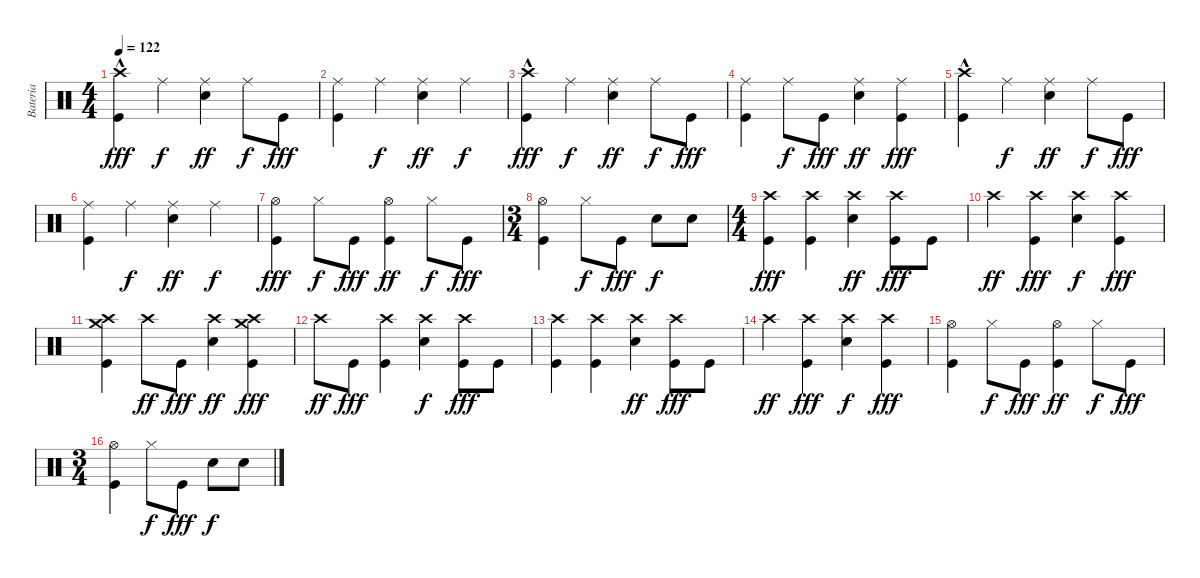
\track ("Bateria" "Bateria") {instrument percussion}
\staff {score}
\articulation defaults
\ts (4 4)
\tempo 122
\clef neutral
\ks c
("Crash high (hit)"{hac} "Kick (hit)").4{dy fff} "Ride (middle)".4{dy f} ("Ride (middle)" "Snare (hit) 2").4{dy ff} "Ride (middle)".8{dy f} "Kick (hit)".8{dy fff} |
("Ride (middle)" "Kick (hit)").4 "Ride (middle)".4{dy f} ("Ride (middle)" "Snare (hit) 2").4{dy ff} "Ride (middle)".4{dy f} |
("Crash high (hit)"{hac} "Kick (hit)").4{dy fff} "Ride (middle)".4{dy f} ("Ride (middle)" "Snare (hit) 2").4{dy ff} "Ride (middle)".8{dy f} "Kick (hit)".8{dy fff} |
("Ride (middle)" "Kick (hit)").4 "Ride (middle)".8{dy f} "Kick (hit)".8{dy fff} ("Ride (middle)" "Snare (hit) 2").4{dy ff} ("Ride (middle)" "Kick (hit)").4{dy fff} |
("Crash high (hit)"{hac} "Kick (hit)").4 "Ride (middle)".4{dy f} ("Ride (middle)" "Snare (hit) 2").4{dy ff} "Ride (middle)".8{dy f} "Kick (hit)".8{dy fff} |
("Ride (middle)" "Kick (hit)").4 "Ride (middle)".4{dy f} ("Ride (middle)" "Snare (hit) 2").4{dy ff} "Ride (middle)".4{dy f} |
("Hi-Hat (open)" "Kick (hit)").4{dy fff} "Hi-Hat (closed)".8{dy f} "Kick (hit)".8{dy fff} ("Hi-Hat (open)" "Kick (hit)").4{dy ff} "Hi-Hat (closed)".8{dy f} "Kick (hit)".8{dy fff} |
\ts (3 4)
("Hi-Hat (open)" "Kick (hit)").4 "Hi-Hat (closed)".8{dy f} "Kick (hit)".8{dy fff} "Snare (hit) 2".8{dy f} "Snare (hit) 2".8 |
\ts (4 4)
("Crash high (hit)" "Kick (hit)").4{dy fff} ("Crash high (hit)" "Kick (hit)").4 ("Crash high (hit)" "Snare (hit) 2").4{dy ff} ("Crash high (hit)" "Kick (hit)").8{dy fff} "Kick (hit)".8 |
"Crash high (hit)".4{dy ff} ("Crash high (hit)" "Kick (hit)").4{dy fff} ("Crash high (hit)" "Snare (hit) 2").4{dy f} ("Crash high (hit)" "Kick (hit)").4{dy fff} |
("Crash high (hit)" "Crash medium (hit)" "Kick (hit)").4 "Crash high (hit)".8{dy ff} "Kick (hit)".8{dy fff} ("Crash high (hit)" "Snare (hit) 2").4{dy ff} ("Crash high (hit)" "Crash medium (hit)" "Kick (hit)").4{dy fff} |
"Crash high (hit)".8{dy ff} "Kick (hit)".8{dy fff} ("Crash high (hit)" "Kick (hit)").4 ("Crash high (hit)" "Snare (hit) 2").4{dy f} ("Crash high (hit)" "Kick (hit)").8{dy fff} "Kick (hit)".8 |
("Crash high (hit)" "Kick (hit)").4 ("Crash high (hit)" "Kick (hit)").4 ("Crash high (hit)" "Snare (hit) 2").4{dy ff} ("Crash high (hit)" "Kick (hit)").8{dy fff} "Kick (hit)".8 |
"Crash high (hit)".4{dy ff} ("Crash high (hit)" "Kick (hit)").4{dy fff} ("Crash high (hit)" "Snare (hit) 2").4{dy f} ("Crash high (hit)" "Kick (hit)").4{dy fff} |
("Hi-Hat (open)" "Kick (hit)").4 "Hi-Hat (closed)".8{dy f} "Kick (hit)".8{dy fff} ("Hi-Hat (open)" "Kick (hit)").4{dy ff} "Hi-Hat (closed)".8{dy f} "Kick (hit)".8{dy fff} |
\ts (3 4)
("Hi-Hat (open)" "Kick (hit)").4 "Hi-Hat (closed)".8{dy f} "Kick (hit)".8{dy fff} "Snare (hit) 2".8{dy f} "Snare (hit) 2".8
